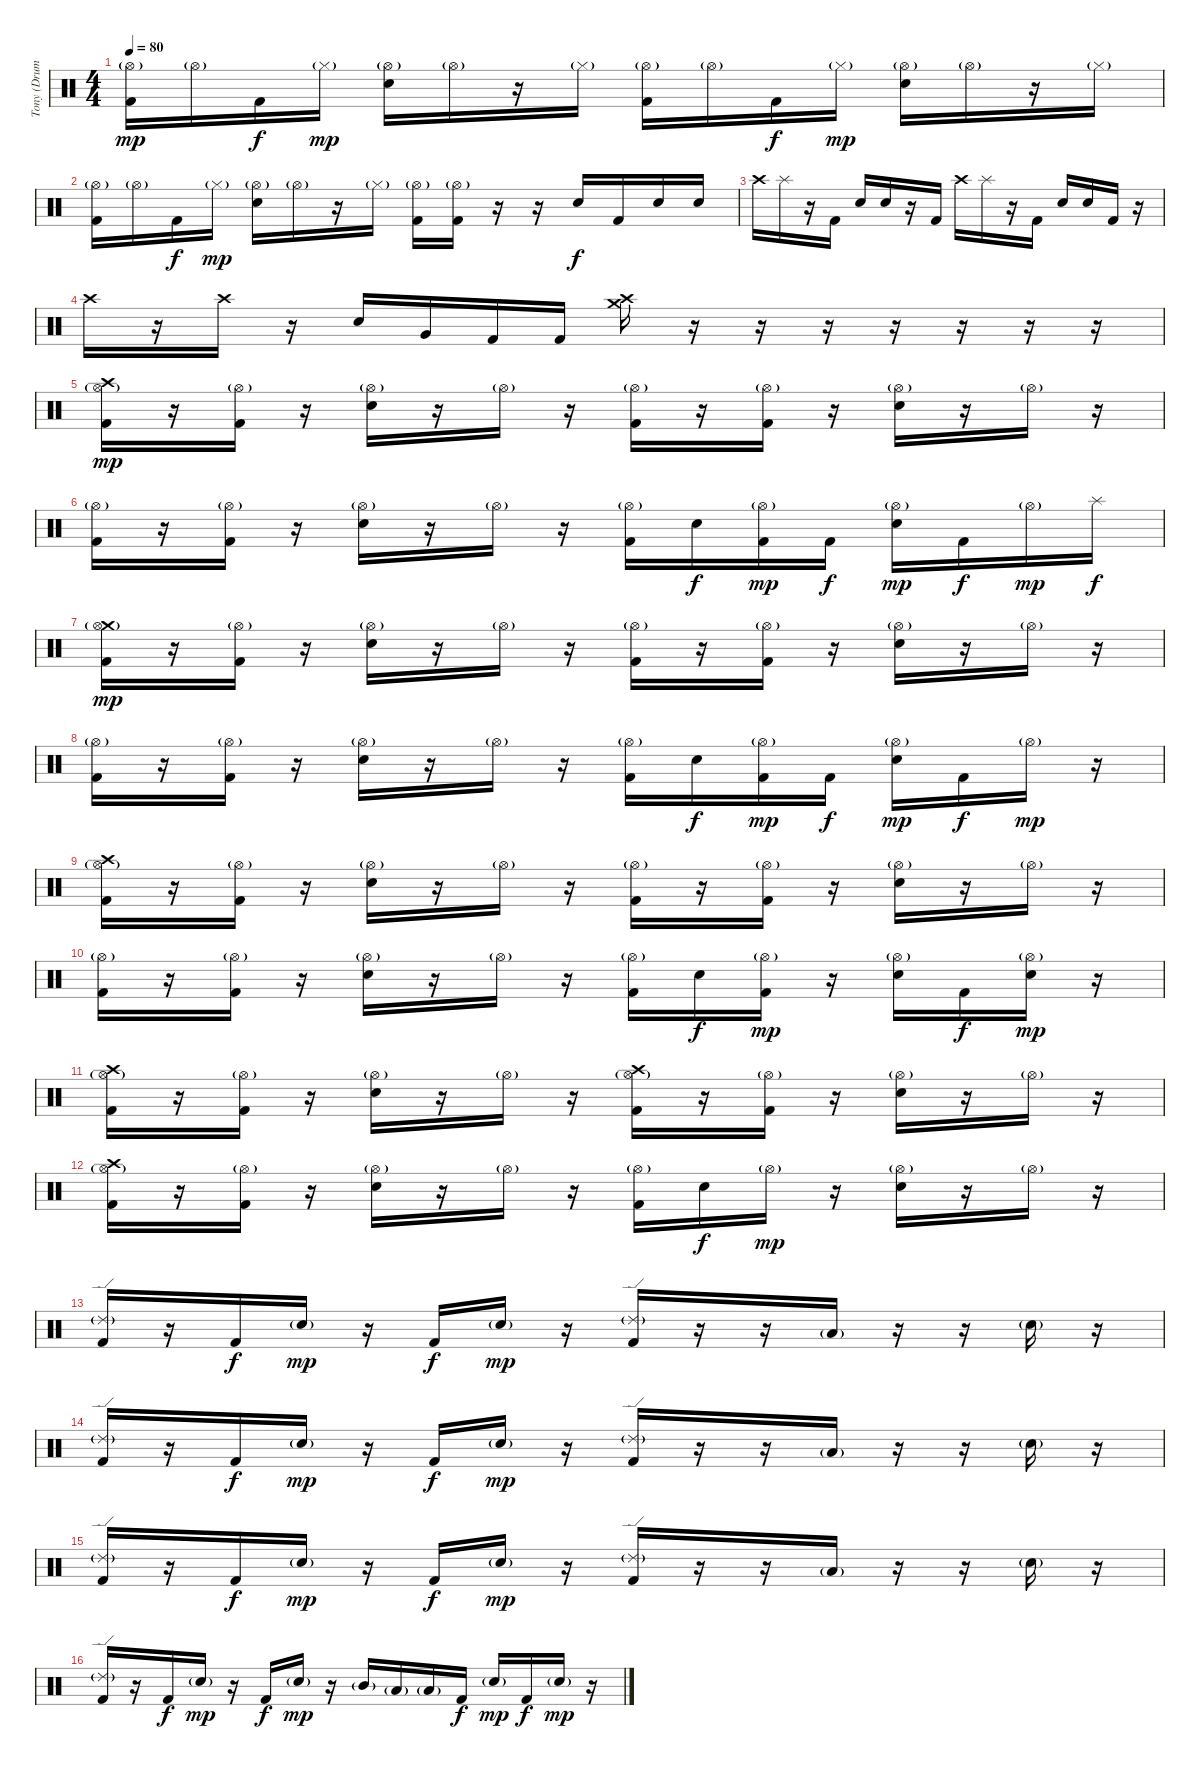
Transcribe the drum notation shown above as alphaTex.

\track ("Tony (Drums)" "Tony (Drum") {instrument percussion}
\staff {score}
\articulation defaults
\ts (4 4)
\tempo 80
\clef neutral
\ks c
("Hi-Hat (open)"{g} "Kick (hit) 2").16{dy mp} "Hi-Hat (open)"{g}.16 "Kick (hit) 2".16{dy f} "Hi-Hat (closed)"{g}.16{dy mp} ("Hi-Hat (open)"{g} "Snare (hit) 2").16 "Hi-Hat (open)"{g}.16 r.16 "Hi-Hat (closed)"{g}.16 ("Hi-Hat (open)"{g} "Kick (hit) 2").16 "Hi-Hat (open)"{g}.16 "Kick (hit) 2".16{dy f} "Hi-Hat (closed)"{g}.16{dy mp} ("Hi-Hat (open)"{g} "Snare (hit) 2").16 "Hi-Hat (open)"{g}.16 r.16 "Hi-Hat (closed)"{g}.16 |
("Hi-Hat (open)"{g} "Kick (hit) 2").16 "Hi-Hat (open)"{g}.16 "Kick (hit) 2".16{dy f} "Hi-Hat (closed)"{g}.16{dy mp} ("Hi-Hat (open)"{g} "Snare (hit) 2").16 "Hi-Hat (open)"{g}.16 r.16 "Hi-Hat (closed)"{g}.16 ("Hi-Hat (open)"{g} "Kick (hit) 2").16 ("Hi-Hat (open)"{g} "Kick (hit) 2").16 r.16 r.16 "Snare (hit) 2".16{dy f} "Kick (hit) 2".16 "Snare (hit) 2".16 "Snare (hit) 2".16 |
"Crash high (hit)".16 "Splash (hit)".16 r.16 "Kick (hit) 2".16 "Snare (hit) 2".16 "Snare (hit) 2".16 r.16 "Kick (hit) 2".16 "Crash high (hit)".16 "Splash (hit)".16 r.16 "Kick (hit) 2".16 "Snare (hit) 2".16 "Snare (hit) 2".16 "Kick (hit) 2".16 r.16 |
"Crash high (hit)".16 r.16 "Crash high (hit)".16 r.16 "Snare (hit) 2".16 "Very Low Tom (hit)".16 "Kick (hit) 2".16 "Kick (hit) 2".16 ("Crash high (hit)" "Crash medium (hit)").16 r.16 r.16 r.16 r.16 r.16 r.16 r.16 |
("Crash high (hit)" "Hi-Hat (open)"{g} "Kick (hit) 2").16{dy mp} r.16 ("Hi-Hat (open)"{g} "Kick (hit) 2").16 r.16 ("Hi-Hat (open)"{g} "Snare (hit) 2").16 r.16 "Hi-Hat (open)"{g}.16 r.16 ("Hi-Hat (open)"{g} "Kick (hit) 2").16 r.16 ("Hi-Hat (open)"{g} "Kick (hit) 2").16 r.16 ("Hi-Hat (open)"{g} "Snare (hit) 2").16 r.16 "Hi-Hat (open)"{g}.16 r.16 |
("Hi-Hat (open)"{g} "Kick (hit) 2").16 r.16 ("Hi-Hat (open)"{g} "Kick (hit) 2").16 r.16 ("Hi-Hat (open)"{g} "Snare (hit) 2").16 r.16 "Hi-Hat (open)"{g}.16 r.16 ("Hi-Hat (open)"{g} "Kick (hit) 2").16 "Snare (hit) 2".16{dy f} ("Hi-Hat (open)"{g} "Kick (hit) 2").16{dy mp} "Kick (hit) 2".16{dy f} ("Hi-Hat (open)"{g} "Snare (hit) 2").16{dy mp} "Kick (hit) 2".16{dy f} "Hi-Hat (open)"{g}.16{dy mp} "Splash (hit)".16{dy f} |
("Crash medium (hit)" "Hi-Hat (open)"{g} "Kick (hit) 2").16{dy mp} r.16 ("Hi-Hat (open)"{g} "Kick (hit) 2").16 r.16 ("Hi-Hat (open)"{g} "Snare (hit) 2").16 r.16 "Hi-Hat (open)"{g}.16 r.16 ("Hi-Hat (open)"{g} "Kick (hit) 2").16 r.16 ("Hi-Hat (open)"{g} "Kick (hit) 2").16 r.16 ("Hi-Hat (open)"{g} "Snare (hit) 2").16 r.16 "Hi-Hat (open)"{g}.16 r.16 |
("Hi-Hat (open)"{g} "Kick (hit) 2").16 r.16 ("Hi-Hat (open)"{g} "Kick (hit) 2").16 r.16 ("Hi-Hat (open)"{g} "Snare (hit) 2").16 r.16 "Hi-Hat (open)"{g}.16 r.16 ("Hi-Hat (open)"{g} "Kick (hit) 2").16 "Snare (hit) 2".16{dy f} ("Hi-Hat (open)"{g} "Kick (hit) 2").16{dy mp} "Kick (hit) 2".16{dy f} ("Hi-Hat (open)"{g} "Snare (hit) 2").16{dy mp} "Kick (hit) 2".16{dy f} "Hi-Hat (open)"{g}.16{dy mp} r.16 |
("Crash high (hit)" "Hi-Hat (open)"{g} "Kick (hit) 2").16 r.16 ("Hi-Hat (open)"{g} "Kick (hit) 2").16 r.16 ("Hi-Hat (open)"{g} "Snare (hit) 2").16 r.16 "Hi-Hat (open)"{g}.16 r.16 ("Hi-Hat (open)"{g} "Kick (hit) 2").16 r.16 ("Hi-Hat (open)"{g} "Kick (hit) 2").16 r.16 ("Hi-Hat (open)"{g} "Snare (hit) 2").16 r.16 "Hi-Hat (open)"{g}.16 r.16 |
("Hi-Hat (open)"{g} "Kick (hit) 2").16 r.16 ("Hi-Hat (open)"{g} "Kick (hit) 2").16 r.16 ("Hi-Hat (open)"{g} "Snare (hit) 2").16 r.16 "Hi-Hat (open)"{g}.16 r.16 ("Hi-Hat (open)"{g} "Kick (hit) 2").16 "Snare (hit) 2".16{dy f} ("Hi-Hat (open)"{g} "Kick (hit) 2").16{dy mp} r.16 ("Hi-Hat (open)"{g} "Snare (hit) 2").16 "Kick (hit) 2".16{dy f} ("Hi-Hat (open)"{g} "Snare (hit) 2").16{dy mp} r.16 |
("Crash high (hit)" "Hi-Hat (open)"{g} "Kick (hit) 2").16 r.16 ("Hi-Hat (open)"{g} "Kick (hit) 2").16 r.16 ("Hi-Hat (open)"{g} "Snare (hit) 2").16 r.16 "Hi-Hat (open)"{g}.16 r.16 ("Crash high (hit)" "Hi-Hat (open)"{g} "Kick (hit) 2").16 r.16 ("Hi-Hat (open)"{g} "Kick (hit) 2").16 r.16 ("Hi-Hat (open)"{g} "Snare (hit) 2").16 r.16 "Hi-Hat (open)"{g}.16 r.16 |
("Crash high (hit)" "Hi-Hat (open)"{g} "Kick (hit) 2").16 r.16 ("Hi-Hat (open)"{g} "Kick (hit) 2").16 r.16 ("Hi-Hat (open)"{g} "Snare (hit) 2").16 r.16 "Hi-Hat (open)"{g}.16 r.16 ("Hi-Hat (open)"{g} "Kick (hit) 2").16 "Snare (hit) 2".16{dy f} "Hi-Hat (open)"{g}.16{dy mp} r.16 ("Hi-Hat (open)"{g} "Snare (hit) 2").16 r.16 "Hi-Hat (open)"{g}.16 r.16 |
("Ride (edge) 2"{g} "Kick (hit) 2").16 r.16 "Kick (hit) 2".16{dy f} "Snare (hit) 2"{g}.16{dy mp} r.16 "Kick (hit) 2".16{dy f} "Snare (hit) 2"{g}.16{dy mp} r.16 ("Ride (edge) 2"{g} "Kick (hit) 2").16 r.16 r.16 "Low Tom (hit)"{g}.16 r.16 r.16 "Snare (hit) 2"{g}.16 r.16 |
("Ride (edge) 2"{g} "Kick (hit) 2").16 r.16 "Kick (hit) 2".16{dy f} "Snare (hit) 2"{g}.16{dy mp} r.16 "Kick (hit) 2".16{dy f} "Snare (hit) 2"{g}.16{dy mp} r.16 ("Ride (edge) 2"{g} "Kick (hit) 2").16 r.16 r.16 "Low Tom (hit)"{g}.16 r.16 r.16 "Snare (hit) 2"{g}.16 r.16 |
("Ride (edge) 2"{g} "Kick (hit) 2").16 r.16 "Kick (hit) 2".16{dy f} "Snare (hit) 2"{g}.16{dy mp} r.16 "Kick (hit) 2".16{dy f} "Snare (hit) 2"{g}.16{dy mp} r.16 ("Ride (edge) 2"{g} "Kick (hit) 2").16 r.16 r.16 "Low Tom (hit)"{g}.16 r.16 r.16 "Snare (hit) 2"{g}.16 r.16 |
("Ride (edge) 2"{g} "Kick (hit) 2").16 r.16 "Kick (hit) 2".16{dy f} "Snare (hit) 2"{g}.16{dy mp} r.16 "Kick (hit) 2".16{dy f} "Snare (hit) 2"{g}.16{dy mp} r.16 "Mid Tom (hit)"{g}.16 "Low Tom (hit)"{g}.16 "Low Tom (hit)"{g}.16 "Kick (hit) 2".16{dy f} "Snare (hit) 2"{g}.16{dy mp} "Kick (hit) 2".16{dy f} "Snare (hit) 2"{g}.16{dy mp} r.16
